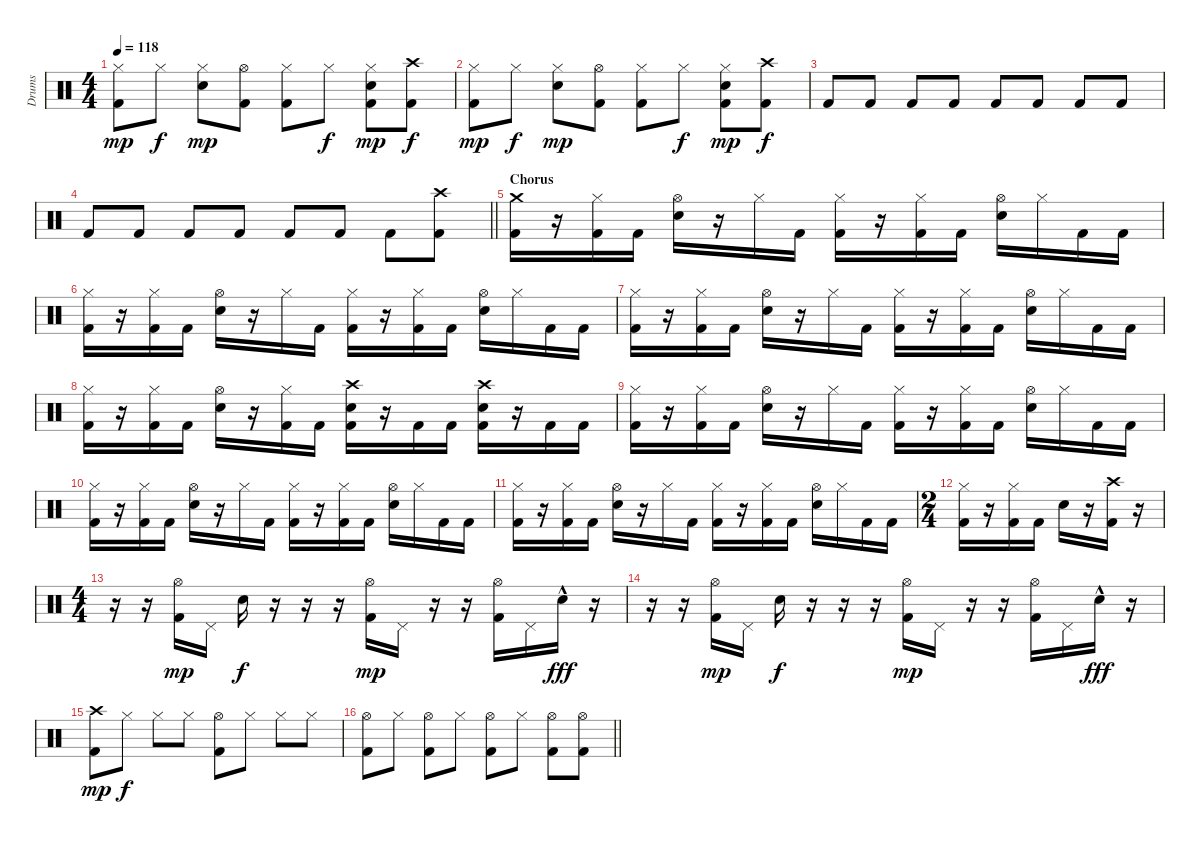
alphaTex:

\track ("Drums" "Drums") {instrument percussion}
\staff {score}
\articulation defaults
\ts (4 4)
\tempo 118
\clef neutral
\ks c
("Hi-Hat (closed)" "Kick (hit) 2").8{dy mp} "Hi-Hat (closed)".8{dy f} ("Hi-Hat (closed)" "Snare (hit) 2").8{dy mp} ("Hi-Hat (open)" "Kick (hit) 2").8 ("Hi-Hat (closed)" "Kick (hit) 2").8 "Hi-Hat (closed)".8{dy f} ("Hi-Hat (closed)" "Snare (hit) 2" "Kick (hit) 2").8{dy mp} ("Crash high (hit)" "Kick (hit) 2").8{dy f} |
("Hi-Hat (closed)" "Kick (hit) 2").8{dy mp} "Hi-Hat (closed)".8{dy f} ("Hi-Hat (closed)" "Snare (hit) 2").8{dy mp} ("Hi-Hat (open)" "Kick (hit) 2").8 ("Hi-Hat (closed)" "Kick (hit) 2").8 "Hi-Hat (closed)".8{dy f} ("Hi-Hat (closed)" "Snare (hit) 2" "Kick (hit) 2").8{dy mp} ("Crash high (hit)" "Kick (hit) 2").8{dy f} |
"Kick (hit) 2".8 "Kick (hit) 2".8 "Kick (hit) 2".8 "Kick (hit) 2".8 "Kick (hit) 2".8 "Kick (hit) 2".8 "Kick (hit) 2".8 "Kick (hit) 2".8 |
\barLineRight lightlight "Kick (hit) 2".8 "Kick (hit) 2".8 "Kick (hit) 2".8 "Kick (hit) 2".8 "Kick (hit) 2".8 "Kick (hit) 2".8 "Kick (hit) 2".8
("Crash high (hit)" "Kick (hit) 2").8 |
\section ("" "Chorus")
("Crash medium (hit)" "Kick (hit) 2").16 r.16 ("Hi-Hat (closed)" "Kick (hit) 2").16 "Kick (hit) 2".16 ("Hi-Hat (open)" "Snare (hit) 2").16 r.16 "Hi-Hat (closed)".16 "Kick (hit) 2".16 ("Hi-Hat (closed)" "Kick (hit) 2").16 r.16 ("Hi-Hat (closed)" "Kick (hit) 2").16 "Kick (hit) 2".16 ("Hi-Hat (open)" "Snare (hit) 2").16 "Hi-Hat (closed)".16 "Kick (hit) 2".16 "Kick (hit) 2".16 |
("Hi-Hat (closed)" "Kick (hit) 2").16 r.16 ("Hi-Hat (closed)" "Kick (hit) 2").16 "Kick (hit) 2".16 ("Hi-Hat (open)" "Snare (hit) 2").16 r.16 "Hi-Hat (closed)".16 "Kick (hit) 2".16 ("Hi-Hat (closed)" "Kick (hit) 2").16 r.16 ("Hi-Hat (closed)" "Kick (hit) 2").16 "Kick (hit) 2".16 ("Hi-Hat (open)" "Snare (hit) 2").16 "Hi-Hat (closed)".16 "Kick (hit) 2".16 "Kick (hit) 2".16 |
("Hi-Hat (closed)" "Kick (hit) 2").16 r.16 ("Hi-Hat (closed)" "Kick (hit) 2").16 "Kick (hit) 2".16 ("Hi-Hat (open)" "Snare (hit) 2").16 r.16 "Hi-Hat (closed)".16 "Kick (hit) 2".16 ("Hi-Hat (closed)" "Kick (hit) 2").16 r.16 ("Hi-Hat (closed)" "Kick (hit) 2").16 "Kick (hit) 2".16 ("Hi-Hat (open)" "Snare (hit) 2").16 "Hi-Hat (closed)".16 "Kick (hit) 2".16 "Kick (hit) 2".16 |
("Hi-Hat (closed)" "Kick (hit) 2").16 r.16 ("Hi-Hat (closed)" "Kick (hit) 2").16 "Kick (hit) 2".16 ("Hi-Hat (open)" "Snare (hit) 2").16 r.16 ("Hi-Hat (closed)" "Kick (hit) 2").16 "Kick (hit) 2".16 ("Crash high (hit)" "Snare (hit) 2" "Kick (hit) 2").16 r.16 "Kick (hit) 2".16 "Kick (hit) 2".16 ("Crash high (hit)" "Snare (hit) 2" "Kick (hit) 2").16 r.16 "Kick (hit) 2".16 "Kick (hit) 2".16 |
("Hi-Hat (closed)" "Kick (hit) 2").16 r.16 ("Hi-Hat (closed)" "Kick (hit) 2").16 "Kick (hit) 2".16 ("Hi-Hat (open)" "Snare (hit) 2").16 r.16 "Hi-Hat (closed)".16 "Kick (hit) 2".16 ("Hi-Hat (closed)" "Kick (hit) 2").16 r.16 ("Hi-Hat (closed)" "Kick (hit) 2").16 "Kick (hit) 2".16 ("Hi-Hat (open)" "Snare (hit) 2").16 "Hi-Hat (closed)".16 "Kick (hit) 2".16 "Kick (hit) 2".16 |
("Hi-Hat (closed)" "Kick (hit) 2").16 r.16 ("Hi-Hat (closed)" "Kick (hit) 2").16 "Kick (hit) 2".16 ("Hi-Hat (open)" "Snare (hit) 2").16 r.16 "Hi-Hat (closed)".16 "Kick (hit) 2".16 ("Hi-Hat (closed)" "Kick (hit) 2").16 r.16 ("Hi-Hat (closed)" "Kick (hit) 2").16 "Kick (hit) 2".16 ("Hi-Hat (open)" "Snare (hit) 2").16 "Hi-Hat (closed)".16 "Kick (hit) 2".16 "Kick (hit) 2".16 |
("Hi-Hat (closed)" "Kick (hit) 2").16 r.16 ("Hi-Hat (closed)" "Kick (hit) 2").16 "Kick (hit) 2".16 ("Hi-Hat (open)" "Snare (hit) 2").16 r.16 "Hi-Hat (closed)".16 "Kick (hit) 2".16 ("Hi-Hat (closed)" "Kick (hit) 2").16 r.16 ("Hi-Hat (closed)" "Kick (hit) 2").16 "Kick (hit) 2".16 ("Hi-Hat (open)" "Snare (hit) 2").16 "Hi-Hat (closed)".16 "Kick (hit) 2".16 "Kick (hit) 2".16 |
\ts (2 4)
("Hi-Hat (closed)" "Kick (hit) 2").16 r.16 ("Hi-Hat (closed)" "Kick (hit) 2").16 "Kick (hit) 2".16 "Snare (hit) 2".16 r.16 ("Crash high (hit)" "Kick (hit) 2").16 r.16 |
\ts (4 4)
r.16 r.16 ("Hi-Hat (open)" "Kick (hit) 2").16{dy mp} "Pedal Hi-Hat (hit)".16 "Snare (hit) 2".16{dy f} r.16 r.16 r.16 ("Hi-Hat (open)" "Kick (hit) 2").16{dy mp} "Pedal Hi-Hat (hit)".16 r.16 r.16 ("Hi-Hat (open)" "Kick (hit) 2").16 "Pedal Hi-Hat (hit)".16 "Snare (hit) 2"{hac}.16{dy fff} r.16 |
r.16 r.16 ("Hi-Hat (open)" "Kick (hit) 2").16{dy mp} "Pedal Hi-Hat (hit)".16 "Snare (hit) 2".16{dy f} r.16 r.16 r.16 ("Hi-Hat (open)" "Kick (hit) 2").16{dy mp} "Pedal Hi-Hat (hit)".16 r.16 r.16 ("Hi-Hat (open)" "Kick (hit) 2").16 "Pedal Hi-Hat (hit)".16 "Snare (hit) 2"{hac}.16{dy fff} r.16 |
("Crash high (hit)" "Kick (hit) 2").8{dy mp} "Hi-Hat (closed)".8{dy f} "Hi-Hat (closed)".8 "Hi-Hat (closed)".8 ("Hi-Hat (open)" "Kick (hit) 2").8 "Hi-Hat (closed)".8 "Hi-Hat (closed)".8 "Hi-Hat (closed)".8 |
\barLineRight lightlight
("Hi-Hat (open)" "Kick (hit) 2").8 "Hi-Hat (closed)".8 ("Hi-Hat (open)" "Kick (hit) 2").8 "Hi-Hat (closed)".8 ("Hi-Hat (open)" "Kick (hit) 2").8 "Hi-Hat (closed)".8 ("Hi-Hat (open)" "Kick (hit) 2").8 ("Hi-Hat (open)" "Kick (hit) 2").8
